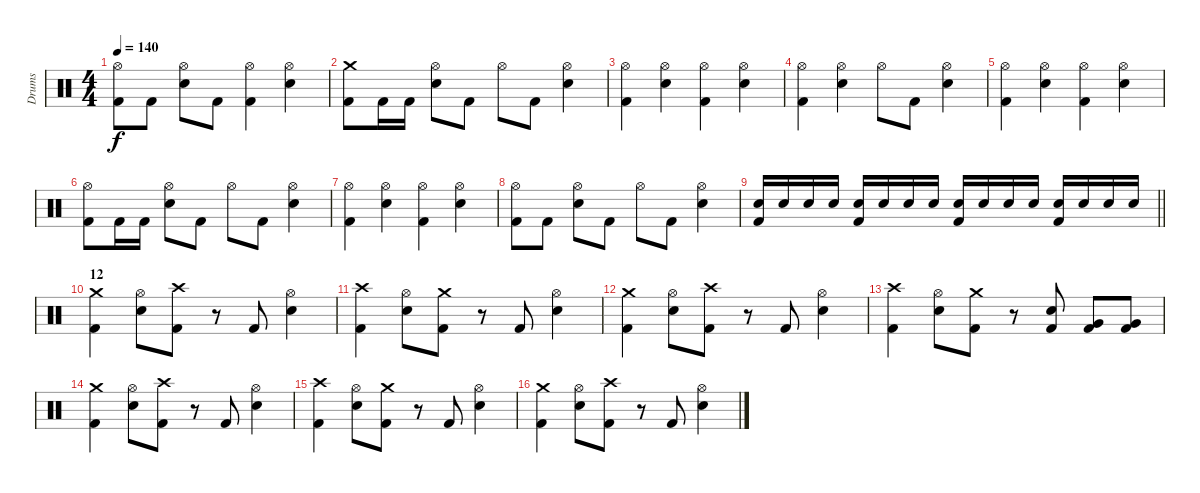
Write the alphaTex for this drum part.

\track ("Drums" "Drums") {instrument percussion}
\staff {score}
\articulation defaults
\ts (4 4)
\tempo 140
\clef neutral
\ks c
("Hi-Hat (open)" "Kick (hit) 2").8{dy f} "Kick (hit) 2".8 ("Hi-Hat (open)" "Electric Snare (hit)").8 "Kick (hit) 2".8 ("Hi-Hat (open)" "Kick (hit) 2").4 ("Hi-Hat (open)" "Electric Snare (hit)").4 |
("Crash medium (hit)" "Kick (hit) 2").8 "Kick (hit) 2".16 "Kick (hit) 2".16 ("Hi-Hat (open)" "Electric Snare (hit)").8 "Kick (hit) 2".8 "Hi-Hat (open)".8 "Kick (hit) 2".8 ("Hi-Hat (open)" "Electric Snare (hit)").4 |
("Hi-Hat (open)" "Kick (hit) 2").4 ("Hi-Hat (open)" "Electric Snare (hit)").4 ("Hi-Hat (open)" "Kick (hit) 2").4 ("Hi-Hat (open)" "Electric Snare (hit)").4 |
("Hi-Hat (open)" "Kick (hit) 2").4 ("Hi-Hat (open)" "Electric Snare (hit)").4 "Hi-Hat (open)".8 "Kick (hit) 2".8 ("Hi-Hat (open)" "Electric Snare (hit)").4 |
("Hi-Hat (open)" "Kick (hit) 2").4 ("Hi-Hat (open)" "Electric Snare (hit)").4 ("Hi-Hat (open)" "Kick (hit) 2").4 ("Hi-Hat (open)" "Electric Snare (hit)").4 |
("Hi-Hat (open)" "Kick (hit) 2").8 "Kick (hit) 2".16 "Kick (hit) 2".16 ("Hi-Hat (open)" "Electric Snare (hit)").8 "Kick (hit) 2".8 "Hi-Hat (open)".8 "Kick (hit) 2".8 ("Hi-Hat (open)" "Electric Snare (hit)").4 |
("Hi-Hat (open)" "Kick (hit) 2").4 ("Hi-Hat (open)" "Electric Snare (hit)").4 ("Hi-Hat (open)" "Kick (hit) 2").4 ("Hi-Hat (open)" "Electric Snare (hit)").4 |
("Hi-Hat (open)" "Kick (hit) 2").8 "Kick (hit) 2".8 ("Hi-Hat (open)" "Electric Snare (hit)").8 "Kick (hit) 2".8 "Hi-Hat (open)".8 "Kick (hit) 2".8 ("Hi-Hat (open)" "Electric Snare (hit)").4 |
\barLineRight lightlight
("Electric Snare (hit)" "Kick (hit) 2").16 "Electric Snare (hit)".16 "Electric Snare (hit)".16 "Electric Snare (hit)".16 ("Electric Snare (hit)" "Kick (hit) 2").16 "Electric Snare (hit)".16 "Electric Snare (hit)".16 "Electric Snare (hit)".16 ("Electric Snare (hit)" "Kick (hit) 2").16 "Electric Snare (hit)".16 "Electric Snare (hit)".16 "Electric Snare (hit)".16 ("Electric Snare (hit)" "Kick (hit) 2").16 "Electric Snare (hit)".16 "Electric Snare (hit)".16 "Electric Snare (hit)".16 |
\section ("" "12")
("Crash medium (hit)" "Kick (hit) 2").4 ("Hi-Hat (open)" "Electric Snare (hit)").8 ("Crash high (hit)" "Kick (hit) 2").8 r.8 "Kick (hit) 2".8 ("Hi-Hat (open)" "Electric Snare (hit)").4 |
("Crash high (hit)" "Kick (hit) 2").4 ("Hi-Hat (open)" "Electric Snare (hit)").8 ("Crash medium (hit)" "Kick (hit) 2").8 r.8 "Kick (hit) 2".8 ("Hi-Hat (open)" "Electric Snare (hit)").4 |
("Crash medium (hit)" "Kick (hit) 2").4 ("Hi-Hat (open)" "Electric Snare (hit)").8 ("Crash high (hit)" "Kick (hit) 2").8 r.8 "Kick (hit) 2".8 ("Hi-Hat (open)" "Electric Snare (hit)").4 |
("Crash high (hit)" "Kick (hit) 2").4 ("Hi-Hat (open)" "Electric Snare (hit)").8 ("Crash medium (hit)" "Kick (hit) 2").8 r.8 ("Electric Snare (hit)" "Kick (hit) 2").8 ("Very Low Tom (hit)" "Kick (hit) 2").8 ("Very Low Tom (hit)" "Kick (hit) 2").8 |
("Crash medium (hit)" "Kick (hit) 2").4 ("Hi-Hat (open)" "Electric Snare (hit)").8 ("Crash high (hit)" "Kick (hit) 2").8 r.8 "Kick (hit) 2".8 ("Hi-Hat (open)" "Electric Snare (hit)").4 |
("Crash high (hit)" "Kick (hit) 2").4 ("Hi-Hat (open)" "Electric Snare (hit)").8 ("Crash medium (hit)" "Kick (hit) 2").8 r.8 "Kick (hit) 2".8 ("Hi-Hat (open)" "Electric Snare (hit)").4 |
("Crash medium (hit)" "Kick (hit) 2").4 ("Hi-Hat (open)" "Electric Snare (hit)").8 ("Crash high (hit)" "Kick (hit) 2").8 r.8 "Kick (hit) 2".8 ("Hi-Hat (open)" "Electric Snare (hit)").4
